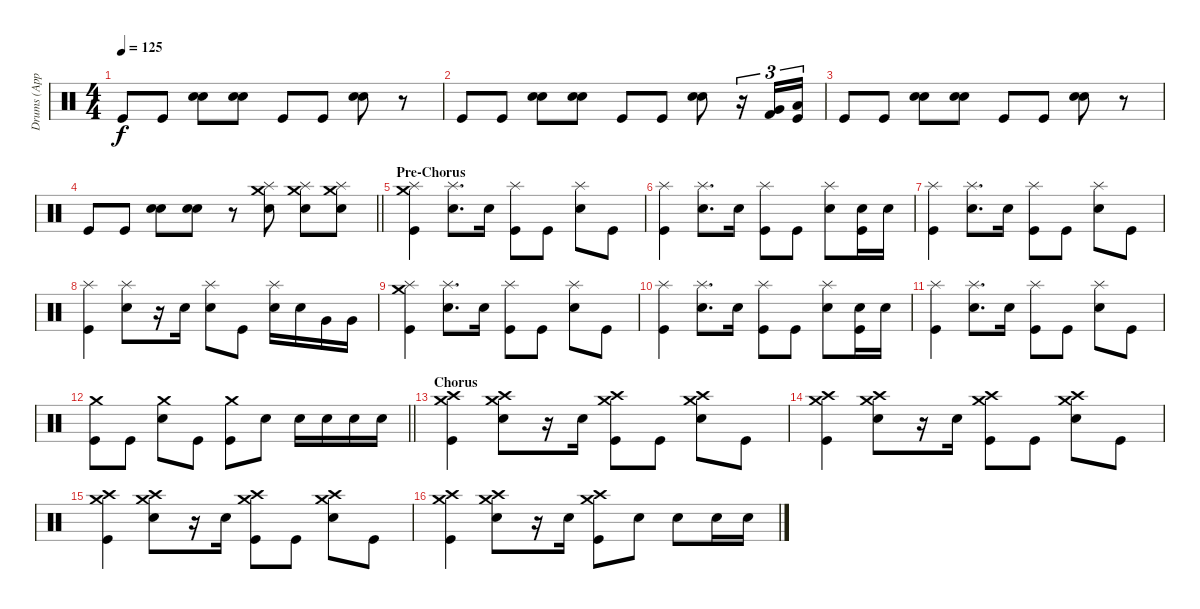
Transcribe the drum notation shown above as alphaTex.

\track ("Drums (Approx.)" "Drums (App") {instrument percussion}
\staff {score}
\articulation defaults
\ts (4 4)
\tempo 125
\clef neutral
\ks c "Kick (hit)".8{dy f} "Kick (hit)".8
("Hand Clap (hit)" "Electric Snare (hit)").8 ("Hand Clap (hit)" "Electric Snare (hit)").8 "Kick (hit)".8 "Kick (hit)".8 ("Hand Clap (hit)" "Electric Snare (hit)").8 r.8 |
"Kick (hit)".8 "Kick (hit)".8 ("Hand Clap (hit)" "Electric Snare (hit)").8 ("Hand Clap (hit)" "Electric Snare (hit)").8 "Kick (hit)".8 "Kick (hit)".8 ("Hand Clap (hit)" "Electric Snare (hit)").8 r.16{tu (3 2)} ("Kick (hit) 2" "Very Low Tom (hit)").16{tu (3 2)} ("Kick (hit)" "Low Floor Tom (hit)").16{tu (3 2)} |
"Kick (hit)".8 "Kick (hit)".8 ("Hand Clap (hit)" "Electric Snare (hit)").8 ("Hand Clap (hit)" "Electric Snare (hit)").8 "Kick (hit)".8 "Kick (hit)".8 ("Hand Clap (hit)" "Electric Snare (hit)").8 r.8 |
\barLineRight lightlight "Kick (hit)".8 "Kick (hit)".8
("Hand Clap (hit)" "Electric Snare (hit)").8 ("Hand Clap (hit)" "Electric Snare (hit)").8 r.8 ("Crash medium (hit)" "Splash (hit)" "Electric Snare (hit)").8 ("Crash medium (hit)" "Splash (hit)" "Electric Snare (hit)").8 ("Crash medium (hit)" "Splash (hit)" "Electric Snare (hit)").8 |
\section ("" "Pre-Chorus")
("Crash medium (hit)" "Splash (hit)" "Kick (hit)").4 ("Splash (hit)" "Electric Snare (hit)").8{d} "Electric Snare (hit)".16 ("Splash (hit)" "Kick (hit)").8 "Kick (hit)".8 ("Splash (hit)" "Electric Snare (hit)").8 "Kick (hit)".8 |
("Splash (hit)" "Kick (hit)").4 ("Splash (hit)" "Electric Snare (hit)").8{d} "Electric Snare (hit)".16 ("Splash (hit)" "Kick (hit)").8 "Kick (hit)".8 ("Splash (hit)" "Electric Snare (hit)").8 ("Electric Snare (hit)" "Kick (hit)").16 "Electric Snare (hit)".16 |
("Splash (hit)" "Kick (hit)").4 ("Splash (hit)" "Electric Snare (hit)").8{d} "Electric Snare (hit)".16 ("Splash (hit)" "Kick (hit)").8 "Kick (hit)".8 ("Splash (hit)" "Electric Snare (hit)").8 "Kick (hit)".8 |
("Splash (hit)" "Kick (hit)").4 ("Splash (hit)" "Electric Snare (hit)").8 r.16 "Electric Snare (hit)".16 ("Splash (hit)" "Electric Snare (hit)").8 "Kick (hit)".8 ("Splash (hit)" "Electric Snare (hit)").16 "Electric Snare (hit)".16 "Very Low Tom (hit)".16 "Very Low Tom (hit)".16 |
("Crash medium (hit)" "Splash (hit)" "Kick (hit)").4 ("Splash (hit)" "Electric Snare (hit)").8{d} "Electric Snare (hit)".16 ("Splash (hit)" "Kick (hit)").8 "Kick (hit)".8 ("Splash (hit)" "Electric Snare (hit)").8 "Kick (hit)".8 |
("Splash (hit)" "Kick (hit)").4 ("Splash (hit)" "Electric Snare (hit)").8{d} "Electric Snare (hit)".16 ("Splash (hit)" "Kick (hit)").8 "Kick (hit)".8 ("Splash (hit)" "Electric Snare (hit)").8 ("Electric Snare (hit)" "Kick (hit)").16 "Electric Snare (hit)".16 |
("Splash (hit)" "Kick (hit)").4 ("Splash (hit)" "Electric Snare (hit)").8{d} "Electric Snare (hit)".16 ("Splash (hit)" "Kick (hit)").8 "Kick (hit)".8 ("Splash (hit)" "Electric Snare (hit)").8 "Kick (hit)".8 |
\barLineRight lightlight
("Crash medium (hit)" "Kick (hit)").8 "Kick (hit)".8 ("Crash medium (hit)" "Electric Snare (hit)").8 "Kick (hit)".8 ("Crash medium (hit)" "Kick (hit)").8 "Electric Snare (hit)".8 "Electric Snare (hit)".16 "Electric Snare (hit)".16 "Electric Snare (hit)".16 "Electric Snare (hit)".16 |
\section ("" "Chorus")
("Crash medium (hit)" "Crash high (hit)" "Kick (hit)").4 ("Crash medium (hit)" "Crash high (hit)" "Electric Snare (hit)").8 r.16 "Electric Snare (hit)".16 ("Crash medium (hit)" "Crash high (hit)" "Kick (hit)").8 "Kick (hit)".8 ("Crash medium (hit)" "Crash high (hit)" "Electric Snare (hit)").8 "Kick (hit)".8 |
("Crash medium (hit)" "Crash high (hit)" "Kick (hit)").4 ("Crash medium (hit)" "Crash high (hit)" "Electric Snare (hit)").8 r.16 "Electric Snare (hit)".16 ("Crash medium (hit)" "Crash high (hit)" "Kick (hit)").8 "Kick (hit)".8 ("Crash medium (hit)" "Crash high (hit)" "Electric Snare (hit)").8 "Kick (hit)".8 |
("Crash medium (hit)" "Crash high (hit)" "Kick (hit)").4 ("Crash medium (hit)" "Crash high (hit)" "Electric Snare (hit)").8 r.16 "Electric Snare (hit)".16 ("Crash medium (hit)" "Crash high (hit)" "Kick (hit)").8 "Kick (hit)".8 ("Crash medium (hit)" "Crash high (hit)" "Electric Snare (hit)").8 "Kick (hit)".8 |
("Crash medium (hit)" "Crash high (hit)" "Kick (hit)").4 ("Crash medium (hit)" "Crash high (hit)" "Electric Snare (hit)").8 r.16 "Electric Snare (hit)".16 ("Crash medium (hit)" "Crash high (hit)" "Kick (hit)").8 "Electric Snare (hit)".8 "Electric Snare (hit)".8 "Electric Snare (hit)".16 "Electric Snare (hit)".16
